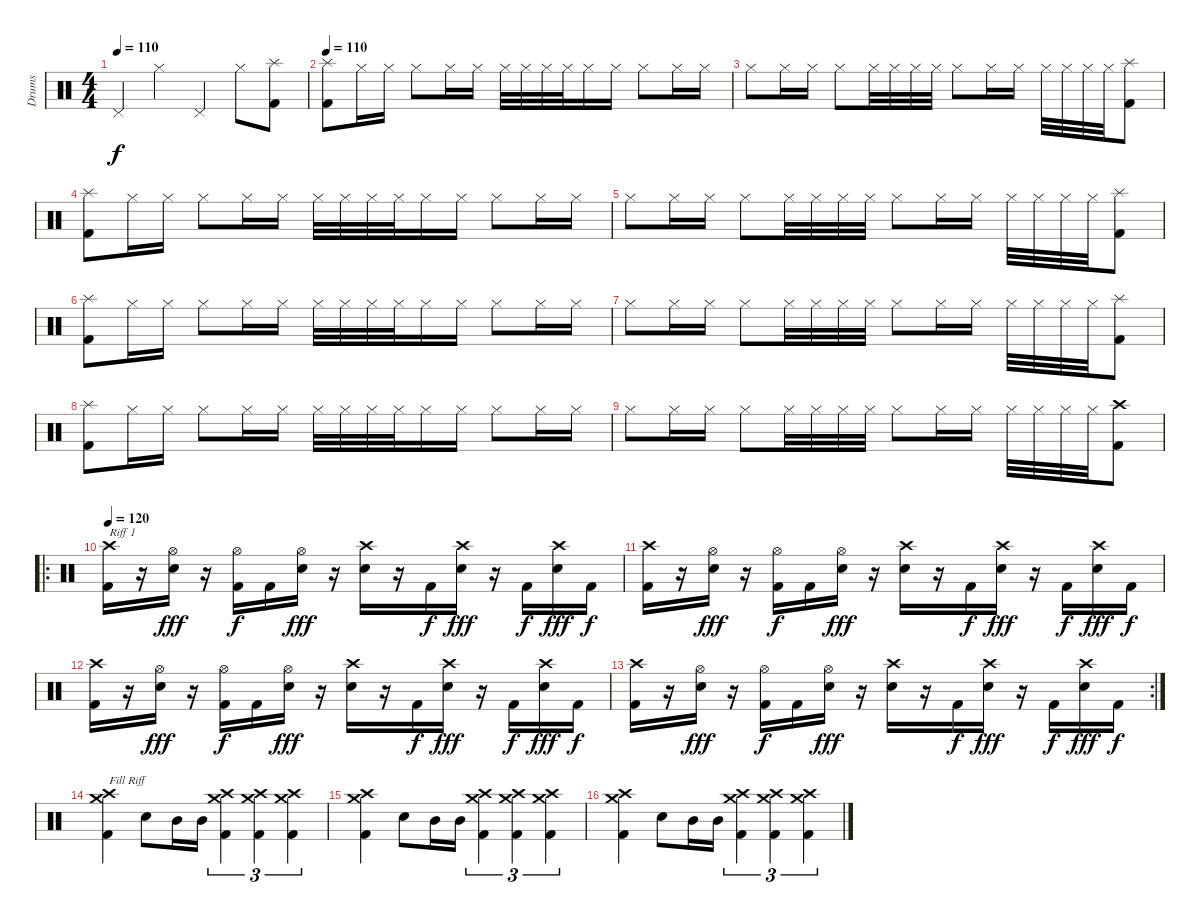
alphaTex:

\track ("Drums" "Drums") {instrument percussion}
\staff {score}
\articulation defaults
\ts (4 4)
\tempo 110
\clef neutral
\ks c "Pedal Hi-Hat (hit)".4{dy f} "Hi-Hat (closed)".4 "Pedal Hi-Hat (hit)".4 "Hi-Hat (closed)".8
("Splash (hit)" "Kick (hit) 2").8 |
\tempo 110
("Splash (hit)" "Kick (hit) 2").8 "Hi-Hat (closed)".16 "Hi-Hat (closed)".16 "Hi-Hat (closed)".8 "Hi-Hat (closed)".16 "Hi-Hat (closed)".16 "Hi-Hat (closed)".32 "Hi-Hat (closed)".32 "Hi-Hat (closed)".32 "Hi-Hat (closed)".32 "Hi-Hat (closed)".16 "Hi-Hat (closed)".16 "Hi-Hat (closed)".8 "Hi-Hat (closed)".16 "Hi-Hat (closed)".16 |
"Hi-Hat (closed)".8 "Hi-Hat (closed)".16 "Hi-Hat (closed)".16 "Hi-Hat (closed)".8 "Hi-Hat (closed)".32 "Hi-Hat (closed)".32 "Hi-Hat (closed)".32 "Hi-Hat (closed)".32 "Hi-Hat (closed)".8 "Hi-Hat (closed)".16 "Hi-Hat (closed)".16 "Hi-Hat (closed)".32 "Hi-Hat (closed)".32 "Hi-Hat (closed)".32 "Hi-Hat (closed)".32 ("Splash (hit)" "Kick (hit) 2").8 |
("Splash (hit)" "Kick (hit) 2").8 "Hi-Hat (closed)".16 "Hi-Hat (closed)".16 "Hi-Hat (closed)".8 "Hi-Hat (closed)".16 "Hi-Hat (closed)".16 "Hi-Hat (closed)".32 "Hi-Hat (closed)".32 "Hi-Hat (closed)".32 "Hi-Hat (closed)".32 "Hi-Hat (closed)".16 "Hi-Hat (closed)".16 "Hi-Hat (closed)".8 "Hi-Hat (closed)".16 "Hi-Hat (closed)".16 |
"Hi-Hat (closed)".8 "Hi-Hat (closed)".16 "Hi-Hat (closed)".16 "Hi-Hat (closed)".8 "Hi-Hat (closed)".32 "Hi-Hat (closed)".32 "Hi-Hat (closed)".32 "Hi-Hat (closed)".32 "Hi-Hat (closed)".8 "Hi-Hat (closed)".16 "Hi-Hat (closed)".16 "Hi-Hat (closed)".32 "Hi-Hat (closed)".32 "Hi-Hat (closed)".32 "Hi-Hat (closed)".32 ("Splash (hit)" "Kick (hit) 2").8 |
("Splash (hit)" "Kick (hit) 2").8 "Hi-Hat (closed)".16 "Hi-Hat (closed)".16 "Hi-Hat (closed)".8 "Hi-Hat (closed)".16 "Hi-Hat (closed)".16 "Hi-Hat (closed)".32 "Hi-Hat (closed)".32 "Hi-Hat (closed)".32 "Hi-Hat (closed)".32 "Hi-Hat (closed)".16 "Hi-Hat (closed)".16 "Hi-Hat (closed)".8 "Hi-Hat (closed)".16 "Hi-Hat (closed)".16 |
"Hi-Hat (closed)".8 "Hi-Hat (closed)".16 "Hi-Hat (closed)".16 "Hi-Hat (closed)".8 "Hi-Hat (closed)".32 "Hi-Hat (closed)".32 "Hi-Hat (closed)".32 "Hi-Hat (closed)".32 "Hi-Hat (closed)".8 "Hi-Hat (closed)".16 "Hi-Hat (closed)".16 "Hi-Hat (closed)".32 "Hi-Hat (closed)".32 "Hi-Hat (closed)".32 "Hi-Hat (closed)".32 ("Splash (hit)" "Kick (hit) 2").8 |
("Splash (hit)" "Kick (hit) 2").8 "Hi-Hat (closed)".16 "Hi-Hat (closed)".16 "Hi-Hat (closed)".8 "Hi-Hat (closed)".16 "Hi-Hat (closed)".16 "Hi-Hat (closed)".32 "Hi-Hat (closed)".32 "Hi-Hat (closed)".32 "Hi-Hat (closed)".32 "Hi-Hat (closed)".16 "Hi-Hat (closed)".16 "Hi-Hat (closed)".8 "Hi-Hat (closed)".16 "Hi-Hat (closed)".16 |
"Hi-Hat (closed)".8 "Hi-Hat (closed)".16 "Hi-Hat (closed)".16 "Hi-Hat (closed)".8 "Hi-Hat (closed)".32 "Hi-Hat (closed)".32 "Hi-Hat (closed)".32 "Hi-Hat (closed)".32 "Hi-Hat (closed)".8 "Hi-Hat (closed)".16 "Hi-Hat (closed)".16 "Hi-Hat (closed)".32 "Hi-Hat (closed)".32 "Hi-Hat (closed)".32 "Hi-Hat (closed)".32 ("Crash high (hit)" "Kick (hit) 2").8 |
\ro
\tempo 120
("Crash high (hit)" "Kick (hit) 2").16{txt "Riff 1"} r.16 ("Hi-Hat (open)" "Snare (hit) 2").16{dy fff} r.16 ("Hi-Hat (open)" "Kick (hit) 2").16{dy f} "Kick (hit) 2".16 ("Hi-Hat (open)" "Snare (hit) 2").16{dy fff} r.16 ("Crash high (hit)" "Snare (hit) 2").16 r.16 "Kick (hit) 2".16{dy f} ("Crash high (hit)" "Snare (hit) 2").16{dy fff} r.16 "Kick (hit) 2".16{dy f} ("Crash high (hit)" "Snare (hit) 2").16{dy fff} "Kick (hit) 2".16{dy f} |
("Crash high (hit)" "Kick (hit) 2").16 r.16 ("Hi-Hat (open)" "Snare (hit) 2").16{dy fff} r.16 ("Hi-Hat (open)" "Kick (hit) 2").16{dy f} "Kick (hit) 2".16 ("Hi-Hat (open)" "Snare (hit) 2").16{dy fff} r.16 ("Crash high (hit)" "Snare (hit) 2").16 r.16 "Kick (hit) 2".16{dy f} ("Crash high (hit)" "Snare (hit) 2").16{dy fff} r.16 "Kick (hit) 2".16{dy f} ("Crash high (hit)" "Snare (hit) 2").16{dy fff} "Kick (hit) 2".16{dy f} |
("Crash high (hit)" "Kick (hit) 2").16 r.16 ("Hi-Hat (open)" "Snare (hit) 2").16{dy fff} r.16 ("Hi-Hat (open)" "Kick (hit) 2").16{dy f} "Kick (hit) 2".16 ("Hi-Hat (open)" "Snare (hit) 2").16{dy fff} r.16 ("Crash high (hit)" "Snare (hit) 2").16 r.16 "Kick (hit) 2".16{dy f} ("Crash high (hit)" "Snare (hit) 2").16{dy fff} r.16 "Kick (hit) 2".16{dy f} ("Crash high (hit)" "Snare (hit) 2").16{dy fff} "Kick (hit) 2".16{dy f} |
\rc 2
("Crash high (hit)" "Kick (hit) 2").16 r.16 ("Hi-Hat (open)" "Snare (hit) 2").16{dy fff} r.16 ("Hi-Hat (open)" "Kick (hit) 2").16{dy f} "Kick (hit) 2".16 ("Hi-Hat (open)" "Snare (hit) 2").16{dy fff} r.16 ("Crash high (hit)" "Snare (hit) 2").16 r.16 "Kick (hit) 2".16{dy f} ("Crash high (hit)" "Snare (hit) 2").16{dy fff} r.16 "Kick (hit) 2".16{dy f} ("Crash high (hit)" "Snare (hit) 2").16{dy fff} "Kick (hit) 2".16{dy f} |
("Crash high (hit)" "Crash medium (hit)" "Kick (hit) 2").4{txt "Fill Riff"} "Snare (hit) 2".8 "Mid Tom (hit)".16 "Mid Tom (hit)".16 ("Crash high (hit)" "Crash medium (hit)" "Kick (hit) 2").4{tu (3 2)} ("Crash high (hit)" "Crash medium (hit)" "Kick (hit) 2").4{tu (3 2)} ("Crash high (hit)" "Crash medium (hit)" "Kick (hit) 2").4{tu (3 2)} |
("Crash high (hit)" "Crash medium (hit)" "Kick (hit) 2").4 "Snare (hit) 2".8 "Mid Tom (hit)".16 "Mid Tom (hit)".16 ("Crash high (hit)" "Crash medium (hit)" "Kick (hit) 2").4{tu (3 2)} ("Crash high (hit)" "Crash medium (hit)" "Kick (hit) 2").4{tu (3 2)} ("Crash high (hit)" "Crash medium (hit)" "Kick (hit) 2").4{tu (3 2)} |
("Crash high (hit)" "Crash medium (hit)" "Kick (hit) 2").4 "Snare (hit) 2".8 "Mid Tom (hit)".16 "Mid Tom (hit)".16 ("Crash high (hit)" "Crash medium (hit)" "Kick (hit) 2").4{tu (3 2)} ("Crash high (hit)" "Crash medium (hit)" "Kick (hit) 2").4{tu (3 2)} ("Crash high (hit)" "Crash medium (hit)" "Kick (hit) 2").4{tu (3 2)}
